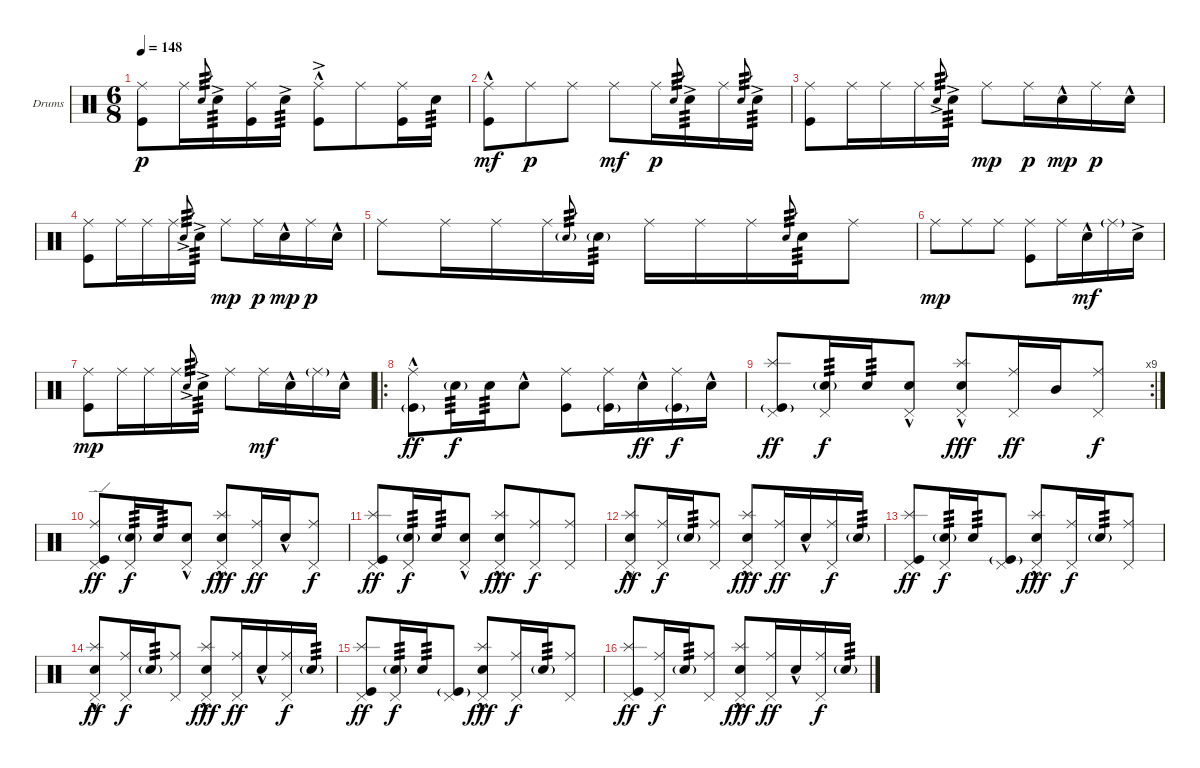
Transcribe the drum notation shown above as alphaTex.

\defaultSystemsLayout 4
\bracketExtendMode groupsimilarinstruments
\firstSystemTrackNameOrientation horizontal
\otherSystemsTrackNameOrientation horizontal
\track ("Drumkit" "Drums") {instrument percussion}
\staff {score}
\articulation defaults
\ts (6 8)
\tempo 148
\clef neutral
\scale
0.333333
\ks c
("Ride (middle)" "Kick (hit)").8{dy p} "Ride (middle)".16 "Snare (hit) 2".8{gr tp 3} "Snare (hit) 2"{ac}.16{tp 3} ("Ride (middle)" "Kick (hit)").16 "Snare (hit) 2"{ac}.16{tp 3} ("Ride (middle)"{hac} "Kick (hit)"{ac}).8 "Ride (middle)".8 ("Ride (middle)" "Kick (hit)").16 "Snare (hit) 2".16{tp 3} |
\scale
0.333333 ("Ride (middle)" "Kick (hit)"{hac}).8{dy mf} "Ride (middle)".8{dy p} "Ride (middle)".8 "Ride (middle)".8{dy mf} "Ride (middle)".16{dy p} "Snare (hit) 2".8{gr tp 3} "Snare (hit) 2"{ac}.16{tp 3} "Ride (middle)".16 "Snare (hit) 2".8{gr tp 3} "Snare (hit) 2"{ac}.16{tp 3} |
\scale
0.333333 ("Ride (middle)" "Kick (hit)").8 "Ride (middle)".16 "Ride (middle)".16 "Ride (middle)".16 "Snare (hit) 2"{ac}.8{gr tp 3} "Snare (hit) 2"{ac}.16{tp 3} "Ride (middle)".8{dy mp} "Ride (middle)".16{dy p} "Snare (hit) 2"{hac}.16{dy mp} "Ride (middle)".16{dy p} "Snare (hit) 2"{hac}.16 |
\scale
0.333333 ("Ride (middle)" "Kick (hit)").8 "Ride (middle)".16 "Ride (middle)".16 "Ride (middle)".16 "Snare (hit) 2"{ac}.8{gr tp 3} "Snare (hit) 2"{ac}.16{tp 3} "Ride (middle)".8{dy mp} "Ride (middle)".16{dy p} "Snare (hit) 2"{hac}.16{dy mp} "Ride (middle)".16{dy p} "Snare (hit) 2"{hac}.16 |
\scale
0.333333 "Ride (middle)".8 "Ride (middle)".16 "Ride (middle)".16 "Ride (middle)".16 "Snare (hit) 2"{g}.8{gr tp 3} "Snare (hit) 2"{g}.16{tp 3} "Ride (middle)".16 "Ride (middle)".16 "Ride (middle)".16 "Snare (hit) 2".8{gr tp 3} "Snare (hit) 2".16{tp 3} "Ride (middle)".8 |
\scale
0.333333 "Ride (middle)".8{dy mp} "Ride (middle)".8 "Ride (middle)".8 ("Ride (middle)" "Kick (hit)").8 "Ride (middle)".16 "Snare (hit) 2"{hac}.16{dy mf} "Ride (middle)"{g}.16 "Snare (hit) 2"{ac}.16 |
\scale
0.301075 ("Ride (middle)" "Kick (hit)").8{dy mp} "Ride (middle)".16 "Ride (middle)".16 "Ride (middle)".16 "Snare (hit) 2"{ac}.8{gr tp 3} "Snare (hit) 2"{ac}.16{tp 3} "Ride (middle)".8 "Ride (middle)".16{dy mf} "Snare (hit) 2"{hac}.16 "Ride (middle)"{g}.16 "Snare (hit) 2"{hac}.16 |
\ro
\scale
0.365591 ("Kick (hit)"{g} "Ride (middle)"{hac}).8{dy ff} "Snare (hit) 2"{g}.16{tp 3 dy f} "Snare (hit) 2".16{tp 3} "Snare (hit) 2"{hac}.8 ("Kick (hit)" "Ride (middle)").8 ("Ride (middle)" "Kick (hit)"{g}).16 "Snare (hit) 2"{hac}.16{dy ff} ("Ride (middle)" "Kick (hit)"{g}).16{dy f} "Snare (hit) 2"{hac}.16 |
\rc 9
\scale
0.333333 ("Kick (hit)"{g} "Splash (hit)" "Pedal Hi-Hat (hit)").8{dy ff} ("Snare (hit) 2"{g} "Pedal Hi-Hat (hit)").16{tp 3 dy f} "Snare (hit) 2".16{tp 3} ("Snare (hit) 2"{hac} "Pedal Hi-Hat (hit)").8 ("Splash (hit)" "Snare (hit) 2"{hac} "Pedal Hi-Hat (hit)").8{dy fff} ("Ride (middle)" "Pedal Hi-Hat (hit)").16{dy ff} "Mid Tom (hit)".16 ("Ride (middle)" "Pedal Hi-Hat (hit)").8{dy f} |
\scale
0.333333 ("Kick (hit)" "Pedal Hi-Hat (hit)" "Ride (edge)").8{dy ff} ("Snare (hit) 2"{g} "Pedal Hi-Hat (hit)").16{tp 3 dy f} "Snare (hit) 2".16{tp 3} ("Snare (hit) 2"{hac} "Pedal Hi-Hat (hit)").8 ("Splash (hit)" "Snare (hit) 2"{hac} "Pedal Hi-Hat (hit)").8{dy fff} ("Ride (middle)" "Pedal Hi-Hat (hit)").16{dy ff} "Snare (hit) 2"{hac}.16 ("Ride (middle)" "Pedal Hi-Hat (hit)").8{dy f} |
\scale
0.333333 ("Kick (hit)" "Pedal Hi-Hat (hit)" "Splash (hit)").8{dy ff} ("Snare (hit) 2"{g} "Pedal Hi-Hat (hit)").16{tp 3 dy f} "Snare (hit) 2".16{tp 3} ("Snare (hit) 2"{hac} "Pedal Hi-Hat (hit)").8 ("Splash (hit)" "Snare (hit) 2"{hac} "Pedal Hi-Hat (hit)").8{dy fff} ("Ride (middle)" "Pedal Hi-Hat (hit)").8{dy f} ("Ride (middle)" "Pedal Hi-Hat (hit)").8 |
\scale
0.333333 ("Pedal Hi-Hat (hit)" "Splash (hit)" "Snare (hit) 2"{hac}).8{dy ff} ("Pedal Hi-Hat (hit)" "Ride (middle)").16{dy f} "Snare (hit) 2"{g}.16{tp 3} ("Pedal Hi-Hat (hit)" "Ride (middle)").8 ("Splash (hit)" "Snare (hit) 2"{hac} "Pedal Hi-Hat (hit)").8{dy fff} ("Ride (middle)" "Pedal Hi-Hat (hit)").16{dy ff} "Snare (hit) 2"{hac}.16 ("Ride (middle)" "Pedal Hi-Hat (hit)").16{dy f} "Snare (hit) 2"{g}.16{tp 3} |
\scale
0.333333 ("Kick (hit)" "Pedal Hi-Hat (hit)" "Splash (hit)").8{dy ff} ("Snare (hit) 2"{g} "Pedal Hi-Hat (hit)").16{tp 3 dy f} "Snare (hit) 2".16{tp 3} ("Pedal Hi-Hat (hit)" "Kick (hit)"{g}).8 ("Splash (hit)" "Snare (hit) 2"{hac} "Pedal Hi-Hat (hit)").8{dy fff} ("Ride (middle)" "Pedal Hi-Hat (hit)").16{dy f} "Snare (hit) 2"{g}.16{tp 3} ("Pedal Hi-Hat (hit)" "Ride (middle)").8 |
\scale
0.333333 ("Pedal Hi-Hat (hit)" "Splash (hit)" "Snare (hit) 2"{hac}).8{dy ff} ("Pedal Hi-Hat (hit)" "Ride (middle)").16{dy f} "Snare (hit) 2"{g}.16{tp 3} ("Pedal Hi-Hat (hit)" "Ride (middle)").8 ("Splash (hit)" "Snare (hit) 2"{hac} "Pedal Hi-Hat (hit)").8{dy fff} ("Ride (middle)" "Pedal Hi-Hat (hit)").16{dy ff} "Snare (hit) 2"{hac}.16 ("Ride (middle)" "Pedal Hi-Hat (hit)").16{dy f} "Snare (hit) 2"{g}.16{tp 3} |
\scale
0.333333 ("Kick (hit)" "Pedal Hi-Hat (hit)" "Splash (hit)").8{dy ff} ("Snare (hit) 2"{g} "Pedal Hi-Hat (hit)").16{tp 3 dy f} "Snare (hit) 2".16{tp 3} ("Pedal Hi-Hat (hit)" "Kick (hit)"{g}).8 ("Splash (hit)" "Snare (hit) 2"{hac} "Pedal Hi-Hat (hit)").8{dy fff} ("Ride (middle)" "Pedal Hi-Hat (hit)").16{dy f} "Snare (hit) 2"{g}.16{tp 3} ("Pedal Hi-Hat (hit)" "Ride (middle)").8 |
\scale
0.333333 ("Pedal Hi-Hat (hit)" "Splash (hit)" "Kick (hit)").8{dy ff} ("Pedal Hi-Hat (hit)" "Ride (middle)").16{dy f} "Snare (hit) 2"{g}.16{tp 3} ("Pedal Hi-Hat (hit)" "Ride (middle)").8 ("Splash (hit)" "Snare (hit) 2"{hac} "Pedal Hi-Hat (hit)").8{dy fff} ("Ride (middle)" "Pedal Hi-Hat (hit)").16{dy ff} "Snare (hit) 2"{hac}.16 ("Ride (middle)" "Pedal Hi-Hat (hit)").16{dy f} "Snare (hit) 2"{g}.16{tp 3}
